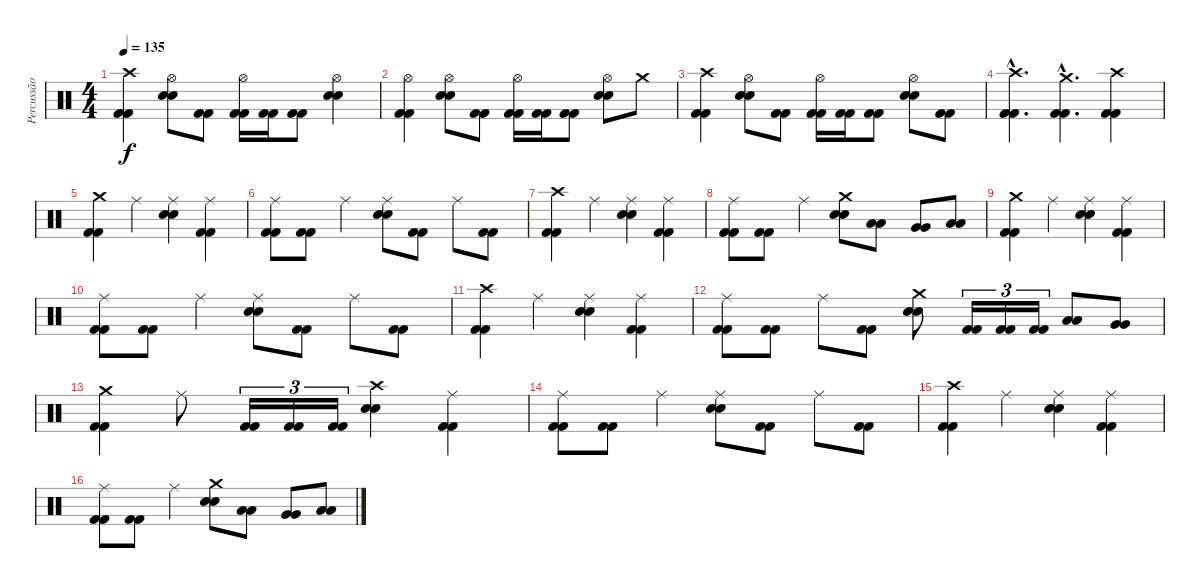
\track ("Percussão" "Percussão") {instrument percussion}
\staff {score}
\articulation defaults
\ts (4 4)
\tempo 135
\clef neutral
\ks c
("Crash high (hit)" "Kick (hit) 2" "Kick (hit) 2").4{dy f} ("Hi-Hat (open)" "Electric Snare (hit)" "Electric Snare (hit)").8 ("Kick (hit) 2" "Kick (hit) 2").8 ("Hi-Hat (open)" "Kick (hit) 2" "Kick (hit) 2").16 ("Kick (hit) 2" "Kick (hit) 2").16 ("Kick (hit) 2" "Kick (hit) 2").8 ("Hi-Hat (open)" "Electric Snare (hit)" "Electric Snare (hit)").4 |
("Hi-Hat (open)" "Kick (hit) 2" "Kick (hit) 2").4 ("Hi-Hat (open)" "Electric Snare (hit)" "Electric Snare (hit)").8 ("Kick (hit) 2" "Kick (hit) 2").8 ("Hi-Hat (open)" "Kick (hit) 2" "Kick (hit) 2").16 ("Kick (hit) 2" "Kick (hit) 2").16 ("Kick (hit) 2" "Kick (hit) 2").8 ("Hi-Hat (open)" "Electric Snare (hit)" "Electric Snare (hit)").8 "Crash medium (hit)".8 |
("Crash high (hit)" "Kick (hit) 2" "Kick (hit) 2").4 ("Hi-Hat (open)" "Electric Snare (hit)" "Electric Snare (hit)").8 ("Kick (hit) 2" "Kick (hit) 2").8 ("Hi-Hat (open)" "Kick (hit) 2" "Kick (hit) 2").16 ("Kick (hit) 2" "Kick (hit) 2").16 ("Kick (hit) 2" "Kick (hit) 2").8 ("Hi-Hat (open)" "Electric Snare (hit)" "Electric Snare (hit)").8 ("Kick (hit) 2" "Kick (hit) 2").8 |
("Crash high (hit)"{hac} "Kick (hit) 2"{hac} "Kick (hit) 2"{hac}).4{d} ("Crash medium (hit)"{hac} "Kick (hit) 2"{hac} "Kick (hit) 2"{hac}).4{d} ("Crash high (hit)" "Kick (hit) 2" "Kick (hit) 2").4 |
("Crash medium (hit)" "Kick (hit) 2" "Kick (hit) 2").4 "Ride (middle)".4 ("Ride (middle)" "Electric Snare (hit)" "Electric Snare (hit)").4 ("Ride (middle)" "Kick (hit) 2" "Kick (hit) 2").4 |
("Ride (middle)" "Kick (hit) 2" "Kick (hit) 2").8 ("Kick (hit) 2" "Kick (hit) 2").8 "Ride (middle)".4 ("Ride (middle)" "Electric Snare (hit)" "Electric Snare (hit)").8 ("Kick (hit) 2" "Kick (hit) 2").8 "Ride (middle)".8 ("Kick (hit) 2" "Kick (hit) 2").8 |
("Crash high (hit)" "Kick (hit) 2" "Kick (hit) 2").4 "Ride (middle)".4 ("Ride (middle)" "Electric Snare (hit)" "Electric Snare (hit)").4 ("Ride (middle)" "Kick (hit) 2" "Kick (hit) 2").4 |
("Ride (middle)" "Kick (hit) 2" "Kick (hit) 2").8 ("Kick (hit) 2" "Kick (hit) 2").8 "Ride (middle)".4 ("Crash medium (hit)" "Electric Snare (hit)" "Electric Snare (hit)").8 ("Low Floor Tom (hit)" "Low Floor Tom (hit)").8 ("Very Low Tom (hit)" "Very Low Tom (hit)").8 ("Low Floor Tom (hit)" "Low Floor Tom (hit)").8 |
("Crash medium (hit)" "Kick (hit) 2" "Kick (hit) 2").4 "Ride (middle)".4 ("Ride (middle)" "Electric Snare (hit)" "Electric Snare (hit)").4 ("Ride (middle)" "Kick (hit) 2" "Kick (hit) 2").4 |
("Ride (middle)" "Kick (hit) 2" "Kick (hit) 2").8 ("Kick (hit) 2" "Kick (hit) 2").8 "Ride (middle)".4 ("Ride (middle)" "Electric Snare (hit)" "Electric Snare (hit)").8 ("Kick (hit) 2" "Kick (hit) 2").8 "Ride (middle)".8 ("Kick (hit) 2" "Kick (hit) 2").8 |
("Crash high (hit)" "Kick (hit) 2" "Kick (hit) 2").4 "Ride (middle)".4 ("Ride (middle)" "Electric Snare (hit)" "Electric Snare (hit)").4 ("Ride (middle)" "Kick (hit) 2" "Kick (hit) 2").4 |
("Ride (middle)" "Kick (hit) 2" "Kick (hit) 2").8 ("Kick (hit) 2" "Kick (hit) 2").8 "Ride (middle)".8 ("Kick (hit) 2" "Kick (hit) 2").8 ("Crash medium (hit)" "Electric Snare (hit)" "Electric Snare (hit)").8 ("Kick (hit) 2" "Kick (hit) 2").16{tu (3 2)} ("Kick (hit) 2" "Kick (hit) 2").16{tu (3 2)} ("Kick (hit) 2" "Kick (hit) 2").16{tu (3 2)} ("Low Tom (hit)" "Low Tom (hit)").8 ("Very Low Tom (hit)" "Very Low Tom (hit)").8 |
("Crash medium (hit)" "Kick (hit) 2" "Kick (hit) 2").4 "Ride (middle)".8 ("Kick (hit) 2" "Kick (hit) 2").16{tu (3 2)} ("Kick (hit) 2" "Kick (hit) 2").16{tu (3 2)} ("Kick (hit) 2" "Kick (hit) 2").16{tu (3 2)} ("Crash high (hit)" "Electric Snare (hit)" "Electric Snare (hit)").4 ("Ride (middle)" "Kick (hit) 2" "Kick (hit) 2").4 |
("Ride (middle)" "Kick (hit) 2" "Kick (hit) 2").8 ("Kick (hit) 2" "Kick (hit) 2").8 "Ride (middle)".4 ("Ride (middle)" "Electric Snare (hit)" "Electric Snare (hit)").8 ("Kick (hit) 2" "Kick (hit) 2").8 "Ride (middle)".8 ("Kick (hit) 2" "Kick (hit) 2").8 |
("Crash high (hit)" "Kick (hit) 2" "Kick (hit) 2").4 "Ride (middle)".4 ("Ride (middle)" "Electric Snare (hit)" "Electric Snare (hit)").4 ("Ride (middle)" "Kick (hit) 2" "Kick (hit) 2").4 |
("Ride (middle)" "Kick (hit) 2" "Kick (hit) 2").8 ("Kick (hit) 2" "Kick (hit) 2").8 "Ride (middle)".4 ("Crash medium (hit)" "Electric Snare (hit)" "Electric Snare (hit)").8 ("Low Floor Tom (hit)" "Low Floor Tom (hit)").8 ("Very Low Tom (hit)" "Very Low Tom (hit)").8 ("Low Floor Tom (hit)" "Low Floor Tom (hit)").8
